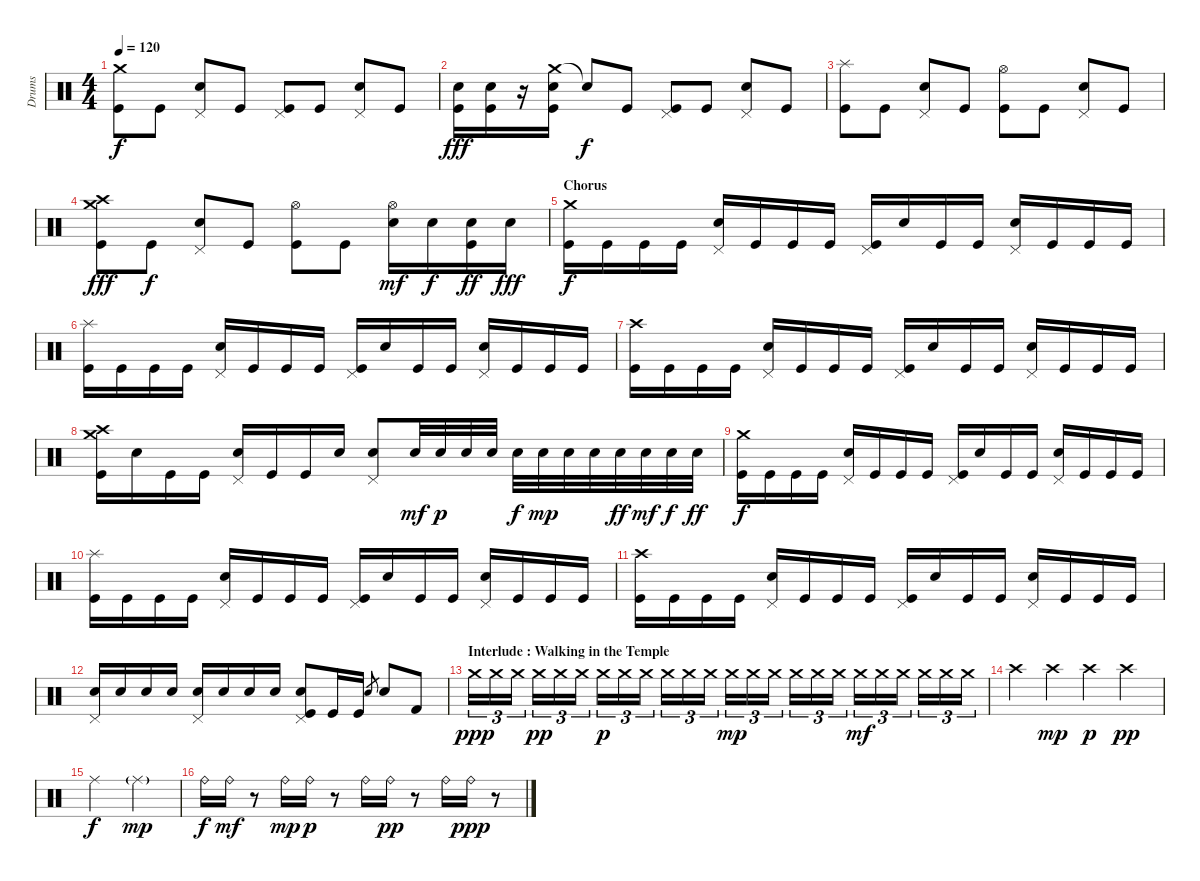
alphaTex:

\track ("Drums" "Drums") {instrument percussion}
\staff {score}
\articulation defaults
\ts (4 4)
\tempo 120
\clef neutral
\ks c
("Crash medium (hit)" "Kick (hit)").8{dy f} "Kick (hit)".8 ("Pedal Hi-Hat (hit)" "Snare (hit) 2").8 "Kick (hit)".8 ("Pedal Hi-Hat (hit)" "Kick (hit)").8 "Kick (hit)".8 ("Pedal Hi-Hat (hit)" "Snare (hit) 2").8 "Kick (hit)".8 |
("Snare (hit) 2" "Kick (hit)").16{dy fff} ("Snare (hit) 2" "Kick (hit)").16 r.16 ("Crash medium (hit)" "Snare (hit) 2" "Kick (hit)").16 "Snare (hit) 2"{t}.8{dy f} "Kick (hit)".8 ("Pedal Hi-Hat (hit)" "Kick (hit)").8 "Kick (hit)".8 ("Pedal Hi-Hat (hit)" "Snare (hit) 2").8 "Kick (hit)".8 |
("Splash (hit)" "Kick (hit)").8 "Kick (hit)".8 ("Pedal Hi-Hat (hit)" "Snare (hit) 2").8 "Kick (hit)".8 ("Hi-Hat (open)" "Kick (hit)").8 "Kick (hit)".8 ("Pedal Hi-Hat (hit)" "Snare (hit) 2").8 "Kick (hit)".8 |
("Crash medium (hit)" "Crash high (hit)" "Kick (hit)").8{dy fff} "Kick (hit)".8{dy f} ("Pedal Hi-Hat (hit)" "Snare (hit) 2").8 "Kick (hit)".8 ("Hi-Hat (open)" "Kick (hit)").8 "Kick (hit)".8 ("Hi-Hat (open)" "Electric Snare (hit)").16{dy mf} "Electric Snare (hit)".16{dy f} ("Electric Snare (hit)" "Kick (hit)").16{dy ff} "Electric Snare (hit)".16{dy fff} |
\section ("" "Chorus")
("Crash medium (hit)" "Kick (hit)").16{dy f} "Kick (hit)".16 "Kick (hit)".16 "Kick (hit)".16 ("Pedal Hi-Hat (hit)" "Electric Snare (hit)").16 "Kick (hit)".16 "Kick (hit)".16 "Kick (hit)".16 ("Pedal Hi-Hat (hit)" "Kick (hit)").16 "Electric Snare (hit)".16 "Kick (hit)".16 "Kick (hit)".16 ("Pedal Hi-Hat (hit)" "Electric Snare (hit)").16 "Kick (hit)".16 "Kick (hit)".16 "Kick (hit)".16 |
("Splash (hit)" "Kick (hit)").16 "Kick (hit)".16 "Kick (hit)".16 "Kick (hit)".16 ("Pedal Hi-Hat (hit)" "Electric Snare (hit)").16 "Kick (hit)".16 "Kick (hit)".16 "Kick (hit)".16 ("Pedal Hi-Hat (hit)" "Kick (hit)").16 "Electric Snare (hit)".16 "Kick (hit)".16 "Kick (hit)".16 ("Pedal Hi-Hat (hit)" "Electric Snare (hit)").16 "Kick (hit)".16 "Kick (hit)".16 "Kick (hit)".16 |
("Crash high (hit)" "Kick (hit)").16 "Kick (hit)".16 "Kick (hit)".16 "Kick (hit)".16 ("Pedal Hi-Hat (hit)" "Electric Snare (hit)").16 "Kick (hit)".16 "Kick (hit)".16 "Kick (hit)".16 ("Pedal Hi-Hat (hit)" "Kick (hit)").16 "Electric Snare (hit)".16 "Kick (hit)".16 "Kick (hit)".16 ("Pedal Hi-Hat (hit)" "Electric Snare (hit)").16 "Kick (hit)".16 "Kick (hit)".16 "Kick (hit)".16 |
("Crash medium (hit)" "Crash high (hit)" "Kick (hit)").16 "Electric Snare (hit)".16 "Kick (hit)".16 "Kick (hit)".16 ("Pedal Hi-Hat (hit)" "Electric Snare (hit)").16 "Kick (hit)".16 "Kick (hit)".16 "Electric Snare (hit)".16 ("Pedal Hi-Hat (hit)" "Electric Snare (hit)").8 "Electric Snare (hit)".32{dy mf} "Electric Snare (hit)".32{dy p} "Electric Snare (hit)".32 "Electric Snare (hit)".32 "Electric Snare (hit)".32{dy f} "Electric Snare (hit)".32{dy mp} "Electric Snare (hit)".32 "Electric Snare (hit)".32 "Electric Snare (hit)".32{dy ff} "Electric Snare (hit)".32{dy mf} "Electric Snare (hit)".32{dy f} "Electric Snare (hit)".32{dy ff} |
("Crash medium (hit)" "Kick (hit)").16{dy f} "Kick (hit)".16 "Kick (hit)".16 "Kick (hit)".16 ("Pedal Hi-Hat (hit)" "Electric Snare (hit)").16 "Kick (hit)".16 "Kick (hit)".16 "Kick (hit)".16 ("Pedal Hi-Hat (hit)" "Kick (hit)").16 "Electric Snare (hit)".16 "Kick (hit)".16 "Kick (hit)".16 ("Pedal Hi-Hat (hit)" "Electric Snare (hit)").16 "Kick (hit)".16 "Kick (hit)".16 "Kick (hit)".16 |
("Splash (hit)" "Kick (hit)").16 "Kick (hit)".16 "Kick (hit)".16 "Kick (hit)".16 ("Pedal Hi-Hat (hit)" "Electric Snare (hit)").16 "Kick (hit)".16 "Kick (hit)".16 "Kick (hit)".16 ("Pedal Hi-Hat (hit)" "Kick (hit)").16 "Electric Snare (hit)".16 "Kick (hit)".16 "Kick (hit)".16 ("Pedal Hi-Hat (hit)" "Electric Snare (hit)").16 "Kick (hit)".16 "Kick (hit)".16 "Kick (hit)".16 |
("Crash high (hit)" "Kick (hit)").16 "Kick (hit)".16 "Kick (hit)".16 "Kick (hit)".16 ("Pedal Hi-Hat (hit)" "Electric Snare (hit)").16 "Kick (hit)".16 "Kick (hit)".16 "Kick (hit)".16 ("Pedal Hi-Hat (hit)" "Kick (hit)").16 "Electric Snare (hit)".16 "Kick (hit)".16 "Kick (hit)".16 ("Pedal Hi-Hat (hit)" "Electric Snare (hit)").16 "Kick (hit)".16 "Kick (hit)".16 "Kick (hit)".16 |
("Pedal Hi-Hat (hit)" "Electric Snare (hit)").16 "Electric Snare (hit)".16 "Electric Snare (hit)".16 "Electric Snare (hit)".16 ("Pedal Hi-Hat (hit)" "Electric Snare (hit)").16 "Electric Snare (hit)".16 "Electric Snare (hit)".16 "Electric Snare (hit)".16 ("Pedal Hi-Hat (hit)" "Electric Snare (hit)" "Kick (hit)").8 "Kick (hit)".16 "Kick (hit)".16 "Snare (hit) 2".8{gr} "Snare (hit) 2".8 "Kick (hit) 2".8 |
\section ("" "Interlude : Walking in the Temple")
"Crash medium (hit)".16{tu (3 2) dy ppp} "Crash medium (hit)".16{tu (3 2)} "Crash medium (hit)".16{tu (3 2)} "Crash medium (hit)".16{tu (3 2) dy pp} "Crash medium (hit)".16{tu (3 2)} "Crash medium (hit)".16{tu (3 2)} "Crash medium (hit)".16{tu (3 2) dy p} "Crash medium (hit)".16{tu (3 2)} "Crash medium (hit)".16{tu (3 2)} "Crash medium (hit)".16{tu (3 2)} "Crash medium (hit)".16{tu (3 2)} "Crash medium (hit)".16{tu (3 2)} "Crash medium (hit)".16{tu (3 2) dy mp} "Crash medium (hit)".16{tu (3 2)} "Crash medium (hit)".16{tu (3 2)} "Crash medium (hit)".16{tu (3 2)} "Crash medium (hit)".16{tu (3 2)} "Crash medium (hit)".16{tu (3 2)} "Crash medium (hit)".16{tu (3 2) dy mf} "Crash medium (hit)".16{tu (3 2)} "Crash medium (hit)".16{tu (3 2)} "Crash medium (hit)".16{tu (3 2)} "Crash medium (hit)".16{tu (3 2)} "Crash medium (hit)".16{tu (3 2)} |
"Crash high (hit)".4 "Crash high (hit)".4{dy mp} "Crash high (hit)".4{dy p} "Crash high (hit)".4{dy pp} |
"Ride (middle)".2{dy f} "Ride (middle)"{g}.2{dy mp} |
"Ride (bell)".16{dy f} "Ride (bell)".16{dy mf} r.8 "Ride (bell)".16{dy mp} "Ride (bell)".16{dy p} r.8 "Ride (bell)".16 "Ride (bell)".16{dy pp} r.8 "Ride (bell)".16 "Ride (bell)".16{dy ppp} r.8
